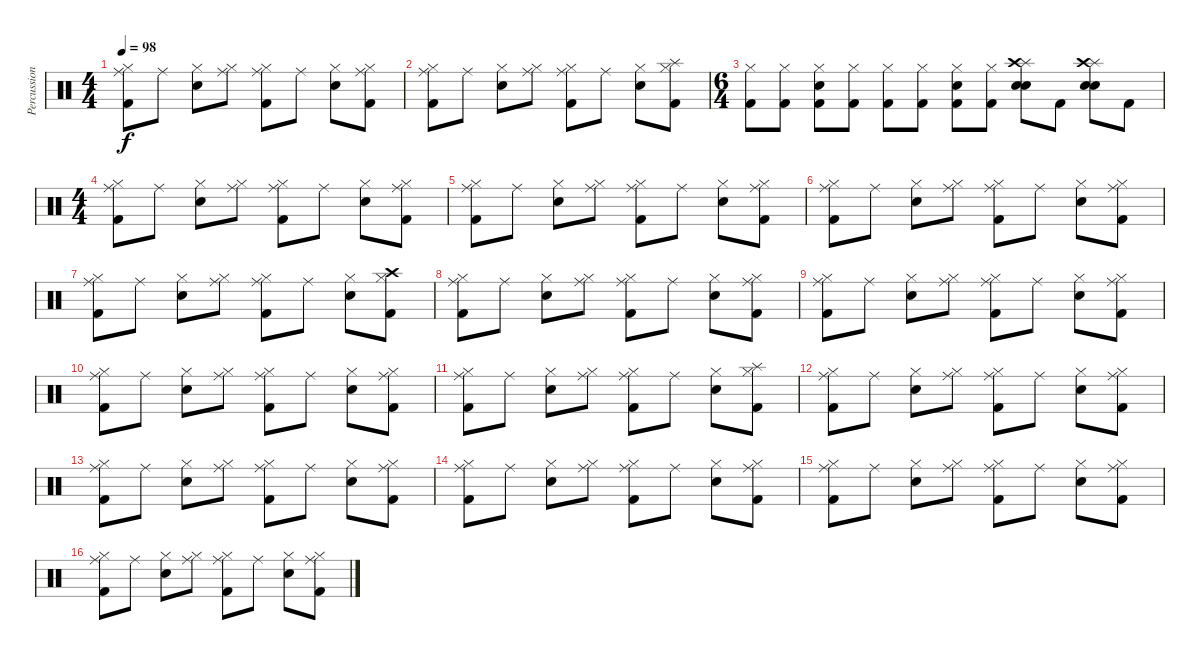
\track ("Percussion" "Percussion") {instrument percussion}
\staff {score}
\articulation defaults
\ts (4 4)
\tempo 98
\clef neutral
\ks c
("Hi-Hat (closed)" "Kick (hit) 2" "Ride (middle)").8{dy f} "Ride (middle)".8 ("Hi-Hat (closed)" "Electric Snare (hit)").8 ("Hi-Hat (closed)" "Ride (middle)").8 ("Hi-Hat (closed)" "Kick (hit) 2" "Ride (middle)").8 "Ride (middle)".8 ("Hi-Hat (closed)" "Electric Snare (hit)").8 ("Hi-Hat (closed)" "Kick (hit) 2" "Ride (middle)").8 |
("Hi-Hat (closed)" "Kick (hit) 2" "Ride (middle)").8 "Ride (middle)".8 ("Hi-Hat (closed)" "Electric Snare (hit)").8 ("Hi-Hat (closed)" "Ride (middle)").8 ("Hi-Hat (closed)" "Kick (hit) 2" "Ride (middle)").8 "Ride (middle)".8 ("Hi-Hat (closed)" "Electric Snare (hit)").8 ("Hi-Hat (closed)" "Kick (hit) 2" "Splash (hit)").8 |
\ts (6 4)
("Hi-Hat (closed)" "Kick (hit) 2").8 ("Hi-Hat (closed)" "Kick (hit) 2").8 ("Hi-Hat (closed)" "Kick (hit) 2" "Electric Snare (hit)").8 ("Hi-Hat (closed)" "Kick (hit) 2").8 ("Hi-Hat (closed)" "Kick (hit) 2").8 ("Hi-Hat (closed)" "Kick (hit) 2").8 ("Hi-Hat (closed)" "Kick (hit) 2" "Electric Snare (hit)").8 ("Hi-Hat (closed)" "Kick (hit) 2").8 ("Splash (hit)" "Snare (hit) 2" "Electric Snare (hit)" "Crash high (hit)").8 "Kick (hit) 2".8 ("Splash (hit)" "Snare (hit) 2" "Electric Snare (hit)" "Crash high (hit)").8 "Kick (hit) 2".8 |
\ts (4 4)
("Hi-Hat (closed)" "Kick (hit) 2" "Ride (middle)").8 "Ride (middle)".8 ("Hi-Hat (closed)" "Electric Snare (hit)").8 ("Hi-Hat (closed)" "Ride (middle)").8 ("Hi-Hat (closed)" "Kick (hit) 2" "Ride (middle)").8 "Ride (middle)".8 ("Hi-Hat (closed)" "Electric Snare (hit)").8 ("Hi-Hat (closed)" "Kick (hit) 2" "Ride (middle)").8 |
("Hi-Hat (closed)" "Kick (hit) 2" "Ride (middle)").8 "Ride (middle)".8 ("Hi-Hat (closed)" "Electric Snare (hit)").8 ("Hi-Hat (closed)" "Ride (middle)").8 ("Hi-Hat (closed)" "Kick (hit) 2" "Ride (middle)").8 "Ride (middle)".8 ("Hi-Hat (closed)" "Electric Snare (hit)").8 ("Hi-Hat (closed)" "Kick (hit) 2" "Ride (middle)").8 |
("Hi-Hat (closed)" "Kick (hit) 2" "Ride (middle)").8 "Ride (middle)".8 ("Hi-Hat (closed)" "Electric Snare (hit)").8 ("Hi-Hat (closed)" "Ride (middle)").8 ("Hi-Hat (closed)" "Kick (hit) 2" "Ride (middle)").8 "Ride (middle)".8 ("Hi-Hat (closed)" "Electric Snare (hit)").8 ("Hi-Hat (closed)" "Kick (hit) 2" "Ride (middle)").8 |
("Hi-Hat (closed)" "Kick (hit) 2" "Ride (middle)").8 "Ride (middle)".8 ("Hi-Hat (closed)" "Electric Snare (hit)").8 ("Hi-Hat (closed)" "Ride (middle)").8 ("Hi-Hat (closed)" "Kick (hit) 2" "Ride (middle)").8 "Ride (middle)".8 ("Hi-Hat (closed)" "Electric Snare (hit)").8 ("Hi-Hat (closed)" "Kick (hit) 2" "Crash high (hit)").8 |
("Hi-Hat (closed)" "Kick (hit) 2" "Ride (middle)").8 "Ride (middle)".8 ("Hi-Hat (closed)" "Electric Snare (hit)").8 ("Hi-Hat (closed)" "Ride (middle)").8 ("Hi-Hat (closed)" "Kick (hit) 2" "Ride (middle)").8 "Ride (middle)".8 ("Hi-Hat (closed)" "Electric Snare (hit)").8 ("Hi-Hat (closed)" "Kick (hit) 2" "Ride (middle)").8 |
("Hi-Hat (closed)" "Kick (hit) 2" "Ride (middle)").8 "Ride (middle)".8 ("Hi-Hat (closed)" "Electric Snare (hit)").8 ("Hi-Hat (closed)" "Ride (middle)").8 ("Hi-Hat (closed)" "Kick (hit) 2" "Ride (middle)").8 "Ride (middle)".8 ("Hi-Hat (closed)" "Electric Snare (hit)").8 ("Hi-Hat (closed)" "Kick (hit) 2" "Ride (middle)").8 |
("Hi-Hat (closed)" "Kick (hit) 2" "Ride (middle)").8 "Ride (middle)".8 ("Hi-Hat (closed)" "Electric Snare (hit)").8 ("Hi-Hat (closed)" "Ride (middle)").8 ("Hi-Hat (closed)" "Kick (hit) 2" "Ride (middle)").8 "Ride (middle)".8 ("Hi-Hat (closed)" "Electric Snare (hit)").8 ("Hi-Hat (closed)" "Kick (hit) 2" "Ride (middle)").8 |
("Hi-Hat (closed)" "Kick (hit) 2" "Ride (middle)").8 "Ride (middle)".8 ("Hi-Hat (closed)" "Electric Snare (hit)").8 ("Hi-Hat (closed)" "Ride (middle)").8 ("Hi-Hat (closed)" "Kick (hit) 2" "Ride (middle)").8 "Ride (middle)".8 ("Hi-Hat (closed)" "Electric Snare (hit)").8 ("Hi-Hat (closed)" "Kick (hit) 2" "Splash (hit)").8 |
("Hi-Hat (closed)" "Kick (hit) 2" "Ride (middle)").8 "Ride (middle)".8 ("Hi-Hat (closed)" "Electric Snare (hit)").8 ("Hi-Hat (closed)" "Ride (middle)").8 ("Hi-Hat (closed)" "Kick (hit) 2" "Ride (middle)").8 "Ride (middle)".8 ("Hi-Hat (closed)" "Electric Snare (hit)").8 ("Hi-Hat (closed)" "Kick (hit) 2" "Ride (middle)").8 |
("Hi-Hat (closed)" "Kick (hit) 2" "Ride (middle)").8 "Ride (middle)".8 ("Hi-Hat (closed)" "Electric Snare (hit)").8 ("Hi-Hat (closed)" "Ride (middle)").8 ("Hi-Hat (closed)" "Kick (hit) 2" "Ride (middle)").8 "Ride (middle)".8 ("Hi-Hat (closed)" "Electric Snare (hit)").8 ("Hi-Hat (closed)" "Kick (hit) 2" "Ride (middle)").8 |
("Hi-Hat (closed)" "Kick (hit) 2" "Ride (middle)").8 "Ride (middle)".8 ("Hi-Hat (closed)" "Electric Snare (hit)").8 ("Hi-Hat (closed)" "Ride (middle)").8 ("Hi-Hat (closed)" "Kick (hit) 2" "Ride (middle)").8 "Ride (middle)".8 ("Hi-Hat (closed)" "Electric Snare (hit)").8 ("Hi-Hat (closed)" "Kick (hit) 2" "Ride (middle)").8 |
("Hi-Hat (closed)" "Kick (hit) 2" "Ride (middle)").8 "Ride (middle)".8 ("Hi-Hat (closed)" "Electric Snare (hit)").8 ("Hi-Hat (closed)" "Ride (middle)").8 ("Hi-Hat (closed)" "Kick (hit) 2" "Ride (middle)").8 "Ride (middle)".8 ("Hi-Hat (closed)" "Electric Snare (hit)").8 ("Hi-Hat (closed)" "Kick (hit) 2" "Ride (middle)").8 |
("Hi-Hat (closed)" "Kick (hit) 2" "Ride (middle)").8 "Ride (middle)".8 ("Hi-Hat (closed)" "Electric Snare (hit)").8 ("Hi-Hat (closed)" "Ride (middle)").8 ("Hi-Hat (closed)" "Kick (hit) 2" "Ride (middle)").8 "Ride (middle)".8 ("Hi-Hat (closed)" "Electric Snare (hit)").8 ("Hi-Hat (closed)" "Kick (hit) 2" "Ride (middle)").8
